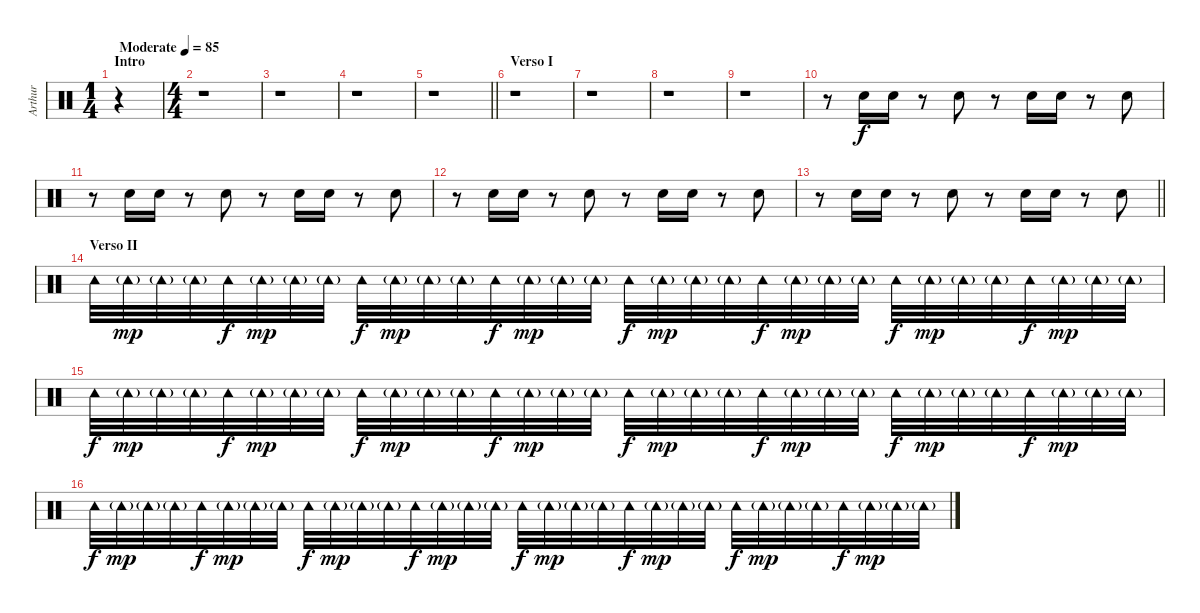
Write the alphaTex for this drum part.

\track ("Arthur" "Arthur") {instrument percussion}
\staff
\articulation defaults
\ts (1 4)
\section ("" "Intro")
\tempo (85 "Moderate")
\clef neutral
\ks c
r.4{dy f} |
\ts (4 4)
r.1 |
r.1 |
r.1 |
\barLineRight lightlight
r.1 |
\section ("" "Verso I")
r.1 |
r.1 |
r.1 |
r.1 |
r.8 "Hand Clap (hit)".16 "Hand Clap (hit)".16 r.8 "Hand Clap (hit)".8 r.8 "Hand Clap (hit)".16 "Hand Clap (hit)".16 r.8 "Hand Clap (hit)".8 |
r.8 "Hand Clap (hit)".16 "Hand Clap (hit)".16 r.8 "Hand Clap (hit)".8 r.8 "Hand Clap (hit)".16 "Hand Clap (hit)".16 r.8 "Hand Clap (hit)".8 |
r.8 "Hand Clap (hit)".16 "Hand Clap (hit)".16 r.8 "Hand Clap (hit)".8 r.8 "Hand Clap (hit)".16 "Hand Clap (hit)".16 r.8 "Hand Clap (hit)".8 |
\barLineRight lightlight
r.8 "Hand Clap (hit)".16 "Hand Clap (hit)".16 r.8 "Hand Clap (hit)".8 r.8 "Hand Clap (hit)".16 "Hand Clap (hit)".16 r.8 "Hand Clap (hit)".8 |
\section ("" "Verso II")
"Tambourine (hit)".32 "Tambourine (hit)"{g}.32{dy mp} "Tambourine (hit)"{g}.32 "Tambourine (hit)"{g}.32 "Tambourine (hit)".32{dy f} "Tambourine (hit)"{g}.32{dy mp} "Tambourine (hit)"{g}.32 "Tambourine (hit)"{g}.32 "Tambourine (hit)".32{dy f} "Tambourine (hit)"{g}.32{dy mp} "Tambourine (hit)"{g}.32 "Tambourine (hit)"{g}.32 "Tambourine (hit)".32{dy f} "Tambourine (hit)"{g}.32{dy mp} "Tambourine (hit)"{g}.32 "Tambourine (hit)"{g}.32 "Tambourine (hit)".32{dy f} "Tambourine (hit)"{g}.32{dy mp} "Tambourine (hit)"{g}.32 "Tambourine (hit)"{g}.32 "Tambourine (hit)".32{dy f} "Tambourine (hit)"{g}.32{dy mp} "Tambourine (hit)"{g}.32 "Tambourine (hit)"{g}.32 "Tambourine (hit)".32{dy f} "Tambourine (hit)"{g}.32{dy mp} "Tambourine (hit)"{g}.32 "Tambourine (hit)"{g}.32 "Tambourine (hit)".32{dy f} "Tambourine (hit)"{g}.32{dy mp} "Tambourine (hit)"{g}.32 "Tambourine (hit)"{g}.32 |
"Tambourine (hit)".32{dy f} "Tambourine (hit)"{g}.32{dy mp} "Tambourine (hit)"{g}.32 "Tambourine (hit)"{g}.32 "Tambourine (hit)".32{dy f} "Tambourine (hit)"{g}.32{dy mp} "Tambourine (hit)"{g}.32 "Tambourine (hit)"{g}.32 "Tambourine (hit)".32{dy f} "Tambourine (hit)"{g}.32{dy mp} "Tambourine (hit)"{g}.32 "Tambourine (hit)"{g}.32 "Tambourine (hit)".32{dy f} "Tambourine (hit)"{g}.32{dy mp} "Tambourine (hit)"{g}.32 "Tambourine (hit)"{g}.32 "Tambourine (hit)".32{dy f} "Tambourine (hit)"{g}.32{dy mp} "Tambourine (hit)"{g}.32 "Tambourine (hit)"{g}.32 "Tambourine (hit)".32{dy f} "Tambourine (hit)"{g}.32{dy mp} "Tambourine (hit)"{g}.32 "Tambourine (hit)"{g}.32 "Tambourine (hit)".32{dy f} "Tambourine (hit)"{g}.32{dy mp} "Tambourine (hit)"{g}.32 "Tambourine (hit)"{g}.32 "Tambourine (hit)".32{dy f} "Tambourine (hit)"{g}.32{dy mp} "Tambourine (hit)"{g}.32 "Tambourine (hit)"{g}.32 |
"Tambourine (hit)".32{dy f} "Tambourine (hit)"{g}.32{dy mp} "Tambourine (hit)"{g}.32 "Tambourine (hit)"{g}.32 "Tambourine (hit)".32{dy f} "Tambourine (hit)"{g}.32{dy mp} "Tambourine (hit)"{g}.32 "Tambourine (hit)"{g}.32 "Tambourine (hit)".32{dy f} "Tambourine (hit)"{g}.32{dy mp} "Tambourine (hit)"{g}.32 "Tambourine (hit)"{g}.32 "Tambourine (hit)".32{dy f} "Tambourine (hit)"{g}.32{dy mp} "Tambourine (hit)"{g}.32 "Tambourine (hit)"{g}.32 "Tambourine (hit)".32{dy f} "Tambourine (hit)"{g}.32{dy mp} "Tambourine (hit)"{g}.32 "Tambourine (hit)"{g}.32 "Tambourine (hit)".32{dy f} "Tambourine (hit)"{g}.32{dy mp} "Tambourine (hit)"{g}.32 "Tambourine (hit)"{g}.32 "Tambourine (hit)".32{dy f} "Tambourine (hit)"{g}.32{dy mp} "Tambourine (hit)"{g}.32 "Tambourine (hit)"{g}.32 "Tambourine (hit)".32{dy f} "Tambourine (hit)"{g}.32{dy mp} "Tambourine (hit)"{g}.32 "Tambourine (hit)"{g}.32
